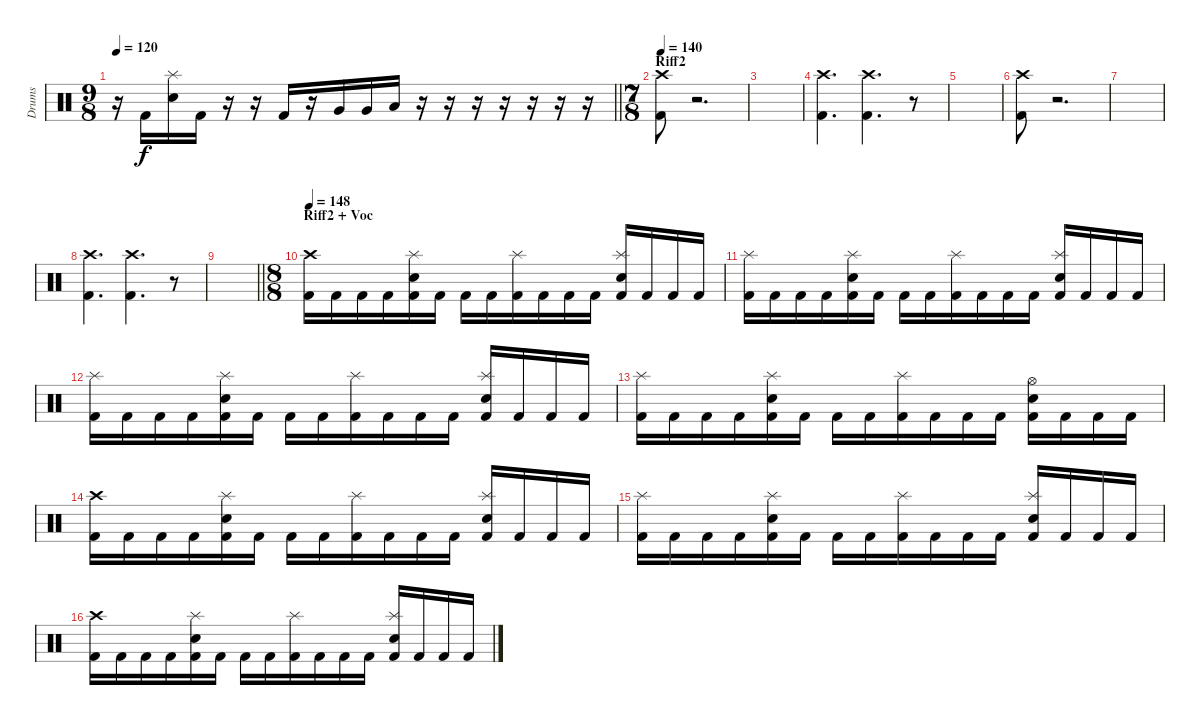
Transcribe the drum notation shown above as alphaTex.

\track ("Drums" "Drums") {instrument percussion}
\staff {score}
\articulation defaults
\ts (9 8)
\tempo 120
\clef neutral
\barLineRight lightlight
\ks c
r.16{dy f} "Kick (hit) 2".16 ("Splash (hit)" "Snare (hit) 2").16 "Kick (hit) 2".16 r.16 r.16 "Kick (hit) 2".16 r.16 "Very Low Tom (hit)".16 "Very Low Tom (hit)".16 "Low Floor Tom (hit)".16 r.16 r.16 r.16 r.16 r.16 r.16 r.16 |
\ts (7 8)
\section ("" "Riff2")
\tempo 140
("Crash high (hit)" "Kick (hit) 2").8 r.2{d} |
|
("Crash high (hit)" "Kick (hit) 2").4{d} ("Crash high (hit)" "Kick (hit) 2").4{d} r.8 |
|
("Crash high (hit)" "Kick (hit) 2").8 r.2{d} |
|
("Crash high (hit)" "Kick (hit) 2").4{d} ("Crash high (hit)" "Kick (hit) 2").4{d} r.8 |
\barLineRight lightlight
|
\ts (8 8)
\section ("" "Riff2 + Voc")
\tempo 148
("Crash high (hit)" "Kick (hit) 2").16 "Kick (hit) 2".16 "Kick (hit) 2".16 "Kick (hit) 2".16 ("Splash (hit)" "Snare (hit) 2" "Kick (hit) 2").16 "Kick (hit) 2".16 "Kick (hit) 2".16 "Kick (hit) 2".16 ("Splash (hit)" "Kick (hit) 2").16 "Kick (hit) 2".16 "Kick (hit) 2".16 "Kick (hit) 2".16 ("Splash (hit)" "Snare (hit) 2" "Kick (hit) 2").16 "Kick (hit) 2".16 "Kick (hit) 2".16 "Kick (hit) 2".16 |
("Splash (hit)" "Kick (hit) 2").16 "Kick (hit) 2".16 "Kick (hit) 2".16 "Kick (hit) 2".16 ("Splash (hit)" "Snare (hit) 2" "Kick (hit) 2").16 "Kick (hit) 2".16 "Kick (hit) 2".16 "Kick (hit) 2".16 ("Splash (hit)" "Kick (hit) 2").16 "Kick (hit) 2".16 "Kick (hit) 2".16 "Kick (hit) 2".16 ("Splash (hit)" "Snare (hit) 2" "Kick (hit) 2").16 "Kick (hit) 2".16 "Kick (hit) 2".16 "Kick (hit) 2".16 |
("Splash (hit)" "Kick (hit) 2").16 "Kick (hit) 2".16 "Kick (hit) 2".16 "Kick (hit) 2".16 ("Splash (hit)" "Snare (hit) 2" "Kick (hit) 2").16 "Kick (hit) 2".16 "Kick (hit) 2".16 "Kick (hit) 2".16 ("Splash (hit)" "Kick (hit) 2").16 "Kick (hit) 2".16 "Kick (hit) 2".16 "Kick (hit) 2".16 ("Splash (hit)" "Snare (hit) 2" "Kick (hit) 2").16 "Kick (hit) 2".16 "Kick (hit) 2".16 "Kick (hit) 2".16 |
("Splash (hit)" "Kick (hit) 2").16 "Kick (hit) 2".16 "Kick (hit) 2".16 "Kick (hit) 2".16 ("Splash (hit)" "Snare (hit) 2" "Kick (hit) 2").16 "Kick (hit) 2".16 "Kick (hit) 2".16 "Kick (hit) 2".16 ("Splash (hit)" "Kick (hit) 2").16 "Kick (hit) 2".16 "Kick (hit) 2".16 "Kick (hit) 2".16 ("Hi-Hat (open)" "Snare (hit) 2" "Kick (hit) 2").16 "Kick (hit) 2".16 "Kick (hit) 2".16 "Kick (hit) 2".16 |
("Crash high (hit)" "Kick (hit) 2").16 "Kick (hit) 2".16 "Kick (hit) 2".16 "Kick (hit) 2".16 ("Splash (hit)" "Snare (hit) 2" "Kick (hit) 2").16 "Kick (hit) 2".16 "Kick (hit) 2".16 "Kick (hit) 2".16 ("Splash (hit)" "Kick (hit) 2").16 "Kick (hit) 2".16 "Kick (hit) 2".16 "Kick (hit) 2".16 ("Splash (hit)" "Snare (hit) 2" "Kick (hit) 2").16 "Kick (hit) 2".16 "Kick (hit) 2".16 "Kick (hit) 2".16 |
("Splash (hit)" "Kick (hit) 2").16 "Kick (hit) 2".16 "Kick (hit) 2".16 "Kick (hit) 2".16 ("Splash (hit)" "Snare (hit) 2" "Kick (hit) 2").16 "Kick (hit) 2".16 "Kick (hit) 2".16 "Kick (hit) 2".16 ("Splash (hit)" "Kick (hit) 2").16 "Kick (hit) 2".16 "Kick (hit) 2".16 "Kick (hit) 2".16 ("Splash (hit)" "Snare (hit) 2" "Kick (hit) 2").16 "Kick (hit) 2".16 "Kick (hit) 2".16 "Kick (hit) 2".16 |
("Crash high (hit)" "Kick (hit) 2").16 "Kick (hit) 2".16 "Kick (hit) 2".16 "Kick (hit) 2".16 ("Splash (hit)" "Snare (hit) 2" "Kick (hit) 2").16 "Kick (hit) 2".16 "Kick (hit) 2".16 "Kick (hit) 2".16 ("Splash (hit)" "Kick (hit) 2").16 "Kick (hit) 2".16 "Kick (hit) 2".16 "Kick (hit) 2".16 ("Splash (hit)" "Snare (hit) 2" "Kick (hit) 2").16 "Kick (hit) 2".16 "Kick (hit) 2".16 "Kick (hit) 2".16
